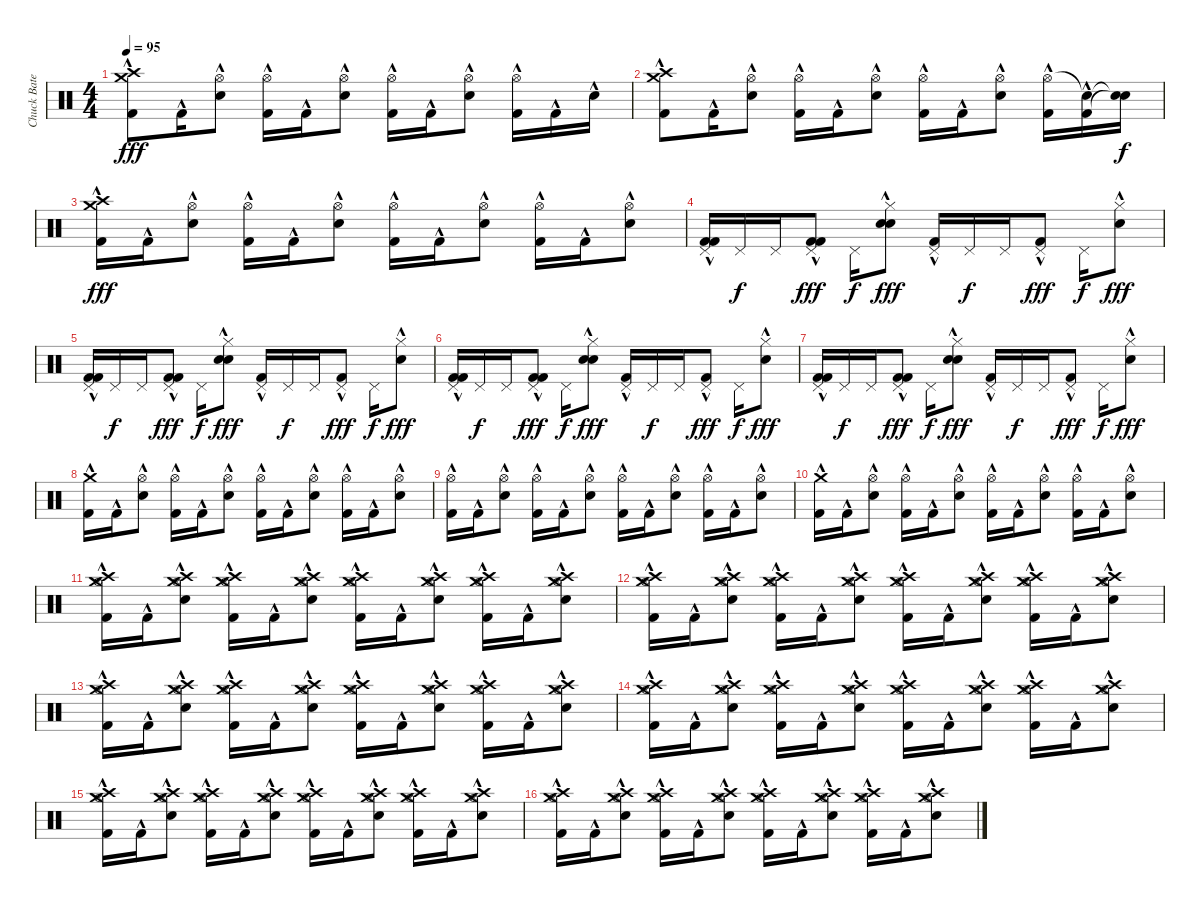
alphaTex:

\track ("Chuck Bateria" "Chuck Bate") {instrument percussion}
\staff {score}
\articulation defaults
\ts (4 4)
\tempo 95
\clef neutral
\ks c
("Crash medium (hit)" "Crash high (hit)" "Kick (hit) 2"{hac}).8{dy fff} "Kick (hit) 2"{hac}.16 ("Hi-Hat (open)" "Electric Snare (hit)"{hac}).8 ("Hi-Hat (open)" "Kick (hit) 2"{hac}).16 "Kick (hit) 2"{hac}.16 ("Hi-Hat (open)" "Electric Snare (hit)"{hac}).8 ("Hi-Hat (open)" "Kick (hit) 2"{hac}).16 "Kick (hit) 2"{hac}.16 ("Hi-Hat (open)" "Electric Snare (hit)"{hac}).8 ("Hi-Hat (open)" "Kick (hit) 2"{hac}).16 "Kick (hit) 2"{hac}.16 "Electric Snare (hit)"{hac}.16 |
("Crash medium (hit)" "Crash high (hit)" "Kick (hit) 2"{hac}).8 "Kick (hit) 2"{hac}.16 ("Hi-Hat (open)" "Electric Snare (hit)"{hac}).8 ("Hi-Hat (open)" "Kick (hit) 2"{hac}).16 "Kick (hit) 2"{hac}.16 ("Hi-Hat (open)" "Electric Snare (hit)"{hac}).8 ("Hi-Hat (open)" "Kick (hit) 2"{hac}).16 "Kick (hit) 2"{hac}.16 ("Hi-Hat (open)" "Electric Snare (hit)"{hac}).8 ("Hi-Hat (open)" "Kick (hit) 2"{hac}).16 ("Snare (hit)"{t} "Kick (hit) 2"{hac}).16 ("Snare (hit)"{t} "Snare (hit)"{t}).16{dy f} |
("Crash medium (hit)" "Crash high (hit)" "Kick (hit) 2"{hac}).16{dy fff} "Kick (hit) 2"{hac}.16 ("Hi-Hat (open)" "Electric Snare (hit)"{hac}).8 ("Hi-Hat (open)" "Kick (hit) 2"{hac}).16 "Kick (hit) 2"{hac}.16 ("Hi-Hat (open)" "Electric Snare (hit)"{hac}).8 ("Hi-Hat (open)" "Kick (hit) 2"{hac}).16 "Kick (hit) 2"{hac}.16 ("Hi-Hat (open)" "Electric Snare (hit)"{hac}).8 ("Hi-Hat (open)" "Kick (hit) 2"{hac}).16 "Kick (hit) 2"{hac}.16 ("Hi-Hat (open)" "Electric Snare (hit)"{hac}).8 |
("Pedal Hi-Hat (hit)" "Kick (hit) 2"{hac} "Kick (hit) 2"{hac}).16 "Pedal Hi-Hat (hit)".16{dy f} "Pedal Hi-Hat (hit)".16 ("Pedal Hi-Hat (hit)" "Kick (hit) 2"{hac} "Kick (hit) 2"{hac}).8{dy fff} "Pedal Hi-Hat (hit)".16{dy f} ("Hi-Hat (closed)"{hac} "Electric Snare (hit)"{hac} "Electric Snare (hit)"{hac}).8{dy fff} ("Pedal Hi-Hat (hit)" "Kick (hit) 2"{hac}).16 "Pedal Hi-Hat (hit)".16{dy f} "Pedal Hi-Hat (hit)".16 ("Pedal Hi-Hat (hit)" "Kick (hit) 2"{hac}).8{dy fff} "Pedal Hi-Hat (hit)".16{dy f} ("Hi-Hat (closed)"{hac} "Electric Snare (hit)"{hac}).8{dy fff} |
("Pedal Hi-Hat (hit)" "Kick (hit) 2"{hac} "Kick (hit) 2"{hac}).16 "Pedal Hi-Hat (hit)".16{dy f} "Pedal Hi-Hat (hit)".16 ("Pedal Hi-Hat (hit)" "Kick (hit) 2"{hac} "Kick (hit) 2"{hac}).8{dy fff} "Pedal Hi-Hat (hit)".16{dy f} ("Hi-Hat (closed)"{hac} "Electric Snare (hit)"{hac} "Electric Snare (hit)"{hac}).8{dy fff} ("Pedal Hi-Hat (hit)" "Kick (hit) 2"{hac}).16 "Pedal Hi-Hat (hit)".16{dy f} "Pedal Hi-Hat (hit)".16 ("Pedal Hi-Hat (hit)" "Kick (hit) 2"{hac}).8{dy fff} "Pedal Hi-Hat (hit)".16{dy f} ("Hi-Hat (closed)"{hac} "Electric Snare (hit)"{hac}).8{dy fff} |
("Pedal Hi-Hat (hit)" "Kick (hit) 2"{hac} "Kick (hit) 2"{hac}).16 "Pedal Hi-Hat (hit)".16{dy f} "Pedal Hi-Hat (hit)".16 ("Pedal Hi-Hat (hit)" "Kick (hit) 2"{hac} "Kick (hit) 2"{hac}).8{dy fff} "Pedal Hi-Hat (hit)".16{dy f} ("Hi-Hat (closed)"{hac} "Electric Snare (hit)"{hac} "Electric Snare (hit)"{hac}).8{dy fff} ("Pedal Hi-Hat (hit)" "Kick (hit) 2"{hac}).16 "Pedal Hi-Hat (hit)".16{dy f} "Pedal Hi-Hat (hit)".16 ("Pedal Hi-Hat (hit)" "Kick (hit) 2"{hac}).8{dy fff} "Pedal Hi-Hat (hit)".16{dy f} ("Hi-Hat (closed)"{hac} "Electric Snare (hit)"{hac}).8{dy fff} |
("Pedal Hi-Hat (hit)" "Kick (hit) 2"{hac} "Kick (hit) 2"{hac}).16 "Pedal Hi-Hat (hit)".16{dy f} "Pedal Hi-Hat (hit)".16 ("Pedal Hi-Hat (hit)" "Kick (hit) 2"{hac} "Kick (hit) 2"{hac}).8{dy fff} "Pedal Hi-Hat (hit)".16{dy f} ("Hi-Hat (closed)"{hac} "Electric Snare (hit)"{hac} "Electric Snare (hit)"{hac}).8{dy fff} ("Pedal Hi-Hat (hit)" "Kick (hit) 2"{hac}).16 "Pedal Hi-Hat (hit)".16{dy f} "Pedal Hi-Hat (hit)".16 ("Pedal Hi-Hat (hit)" "Kick (hit) 2"{hac}).8{dy fff} "Pedal Hi-Hat (hit)".16{dy f} ("Hi-Hat (closed)"{hac} "Electric Snare (hit)"{hac}).8{dy fff} |
("Crash medium (hit)" "Kick (hit) 2"{hac}).16 "Kick (hit) 2"{hac}.16 ("Hi-Hat (open)" "Electric Snare (hit)"{hac}).8 ("Hi-Hat (open)" "Kick (hit) 2"{hac}).16 "Kick (hit) 2"{hac}.16 ("Hi-Hat (open)" "Electric Snare (hit)"{hac}).8 ("Hi-Hat (open)" "Kick (hit) 2"{hac}).16 "Kick (hit) 2"{hac}.16 ("Hi-Hat (open)" "Electric Snare (hit)"{hac}).8 ("Hi-Hat (open)" "Kick (hit) 2"{hac}).16 "Kick (hit) 2"{hac}.16 ("Hi-Hat (open)" "Electric Snare (hit)"{hac}).8 |
("Hi-Hat (open)" "Kick (hit) 2"{hac}).16 "Kick (hit) 2"{hac}.16 ("Hi-Hat (open)" "Electric Snare (hit)"{hac}).8 ("Hi-Hat (open)" "Kick (hit) 2"{hac}).16 "Kick (hit) 2"{hac}.16 ("Hi-Hat (open)" "Electric Snare (hit)"{hac}).8 ("Hi-Hat (open)" "Kick (hit) 2"{hac}).16 "Kick (hit) 2"{hac}.16 ("Hi-Hat (open)" "Electric Snare (hit)"{hac}).8 ("Hi-Hat (open)" "Kick (hit) 2"{hac}).16 "Kick (hit) 2"{hac}.16 ("Hi-Hat (open)" "Electric Snare (hit)"{hac}).8 |
("Crash medium (hit)" "Kick (hit) 2"{hac}).16 "Kick (hit) 2"{hac}.16 ("Hi-Hat (open)" "Electric Snare (hit)"{hac}).8 ("Hi-Hat (open)" "Kick (hit) 2"{hac}).16 "Kick (hit) 2"{hac}.16 ("Hi-Hat (open)" "Electric Snare (hit)"{hac}).8 ("Hi-Hat (open)" "Kick (hit) 2"{hac}).16 "Kick (hit) 2"{hac}.16 ("Hi-Hat (open)" "Electric Snare (hit)"{hac}).8 ("Hi-Hat (open)" "Kick (hit) 2"{hac}).16 "Kick (hit) 2"{hac}.16 ("Hi-Hat (open)" "Electric Snare (hit)"{hac}).8 |
("Crash high (hit)" "Hi-Hat (open)" "Crash medium (hit)" "Kick (hit) 2"{hac}).16 "Kick (hit) 2"{hac}.16 ("Crash high (hit)" "Hi-Hat (open)" "Crash medium (hit)" "Electric Snare (hit)"{hac}).8 ("Crash high (hit)" "Hi-Hat (open)" "Crash medium (hit)" "Kick (hit) 2"{hac}).16 "Kick (hit) 2"{hac}.16 ("Crash high (hit)" "Hi-Hat (open)" "Crash medium (hit)" "Electric Snare (hit)"{hac}).8 ("Crash high (hit)" "Hi-Hat (open)" "Crash medium (hit)" "Kick (hit) 2"{hac}).16 "Kick (hit) 2"{hac}.16 ("Crash high (hit)" "Hi-Hat (open)" "Crash medium (hit)" "Electric Snare (hit)"{hac}).8 ("Crash high (hit)" "Hi-Hat (open)" "Crash medium (hit)" "Kick (hit) 2"{hac}).16 "Kick (hit) 2"{hac}.16 ("Crash high (hit)" "Hi-Hat (open)" "Crash medium (hit)" "Electric Snare (hit)"{hac}).8 |
("Crash high (hit)" "Hi-Hat (open)" "Crash medium (hit)" "Kick (hit) 2"{hac}).16 "Kick (hit) 2"{hac}.16 ("Crash high (hit)" "Hi-Hat (open)" "Crash medium (hit)" "Electric Snare (hit)"{hac}).8 ("Crash high (hit)" "Hi-Hat (open)" "Crash medium (hit)" "Kick (hit) 2"{hac}).16 "Kick (hit) 2"{hac}.16 ("Crash high (hit)" "Hi-Hat (open)" "Crash medium (hit)" "Electric Snare (hit)"{hac}).8 ("Crash high (hit)" "Hi-Hat (open)" "Crash medium (hit)" "Kick (hit) 2"{hac}).16 "Kick (hit) 2"{hac}.16 ("Crash high (hit)" "Hi-Hat (open)" "Crash medium (hit)" "Electric Snare (hit)"{hac}).8 ("Crash high (hit)" "Hi-Hat (open)" "Crash medium (hit)" "Kick (hit) 2"{hac}).16 "Kick (hit) 2"{hac}.16 ("Crash high (hit)" "Hi-Hat (open)" "Crash medium (hit)" "Electric Snare (hit)"{hac}).8 |
("Crash high (hit)" "Hi-Hat (open)" "Crash medium (hit)" "Kick (hit) 2"{hac}).16 "Kick (hit) 2"{hac}.16 ("Crash high (hit)" "Hi-Hat (open)" "Crash medium (hit)" "Electric Snare (hit)"{hac}).8 ("Crash high (hit)" "Hi-Hat (open)" "Crash medium (hit)" "Kick (hit) 2"{hac}).16 "Kick (hit) 2"{hac}.16 ("Crash high (hit)" "Hi-Hat (open)" "Crash medium (hit)" "Electric Snare (hit)"{hac}).8 ("Crash high (hit)" "Hi-Hat (open)" "Crash medium (hit)" "Kick (hit) 2"{hac}).16 "Kick (hit) 2"{hac}.16 ("Crash high (hit)" "Hi-Hat (open)" "Crash medium (hit)" "Electric Snare (hit)"{hac}).8 ("Crash high (hit)" "Hi-Hat (open)" "Crash medium (hit)" "Kick (hit) 2"{hac}).16 "Kick (hit) 2"{hac}.16 ("Crash high (hit)" "Hi-Hat (open)" "Crash medium (hit)" "Electric Snare (hit)"{hac}).8 |
("Crash high (hit)" "Hi-Hat (open)" "Crash medium (hit)" "Kick (hit) 2"{hac}).16 "Kick (hit) 2"{hac}.16 ("Crash high (hit)" "Hi-Hat (open)" "Crash medium (hit)" "Electric Snare (hit)"{hac}).8 ("Crash high (hit)" "Hi-Hat (open)" "Crash medium (hit)" "Kick (hit) 2"{hac}).16 "Kick (hit) 2"{hac}.16 ("Crash high (hit)" "Hi-Hat (open)" "Crash medium (hit)" "Electric Snare (hit)"{hac}).8 ("Crash high (hit)" "Hi-Hat (open)" "Crash medium (hit)" "Kick (hit) 2"{hac}).16 "Kick (hit) 2"{hac}.16 ("Crash high (hit)" "Hi-Hat (open)" "Crash medium (hit)" "Electric Snare (hit)"{hac}).8 ("Crash high (hit)" "Hi-Hat (open)" "Crash medium (hit)" "Kick (hit) 2"{hac}).16 "Kick (hit) 2"{hac}.16 ("Crash high (hit)" "Hi-Hat (open)" "Crash medium (hit)" "Electric Snare (hit)"{hac}).8 |
("Crash high (hit)" "Hi-Hat (open)" "Crash medium (hit)" "Kick (hit) 2"{hac}).16 "Kick (hit) 2"{hac}.16 ("Crash high (hit)" "Hi-Hat (open)" "Crash medium (hit)" "Electric Snare (hit)"{hac}).8 ("Crash high (hit)" "Hi-Hat (open)" "Crash medium (hit)" "Kick (hit) 2"{hac}).16 "Kick (hit) 2"{hac}.16 ("Crash high (hit)" "Hi-Hat (open)" "Crash medium (hit)" "Electric Snare (hit)"{hac}).8 ("Crash high (hit)" "Hi-Hat (open)" "Crash medium (hit)" "Kick (hit) 2"{hac}).16 "Kick (hit) 2"{hac}.16 ("Crash high (hit)" "Hi-Hat (open)" "Crash medium (hit)" "Electric Snare (hit)"{hac}).8 ("Crash high (hit)" "Hi-Hat (open)" "Crash medium (hit)" "Kick (hit) 2"{hac}).16 "Kick (hit) 2"{hac}.16 ("Crash high (hit)" "Hi-Hat (open)" "Crash medium (hit)" "Electric Snare (hit)"{hac}).8 |
("Crash high (hit)" "Hi-Hat (open)" "Crash medium (hit)" "Kick (hit) 2"{hac}).16 "Kick (hit) 2"{hac}.16 ("Crash high (hit)" "Hi-Hat (open)" "Crash medium (hit)" "Electric Snare (hit)"{hac}).8 ("Crash high (hit)" "Hi-Hat (open)" "Crash medium (hit)" "Kick (hit) 2"{hac}).16 "Kick (hit) 2"{hac}.16 ("Crash high (hit)" "Hi-Hat (open)" "Crash medium (hit)" "Electric Snare (hit)"{hac}).8 ("Crash high (hit)" "Hi-Hat (open)" "Crash medium (hit)" "Kick (hit) 2"{hac}).16 "Kick (hit) 2"{hac}.16 ("Crash high (hit)" "Hi-Hat (open)" "Crash medium (hit)" "Electric Snare (hit)"{hac}).8 ("Crash high (hit)" "Hi-Hat (open)" "Crash medium (hit)" "Kick (hit) 2"{hac}).16 "Kick (hit) 2"{hac}.16 ("Crash high (hit)" "Hi-Hat (open)" "Crash medium (hit)" "Electric Snare (hit)"{hac}).8
